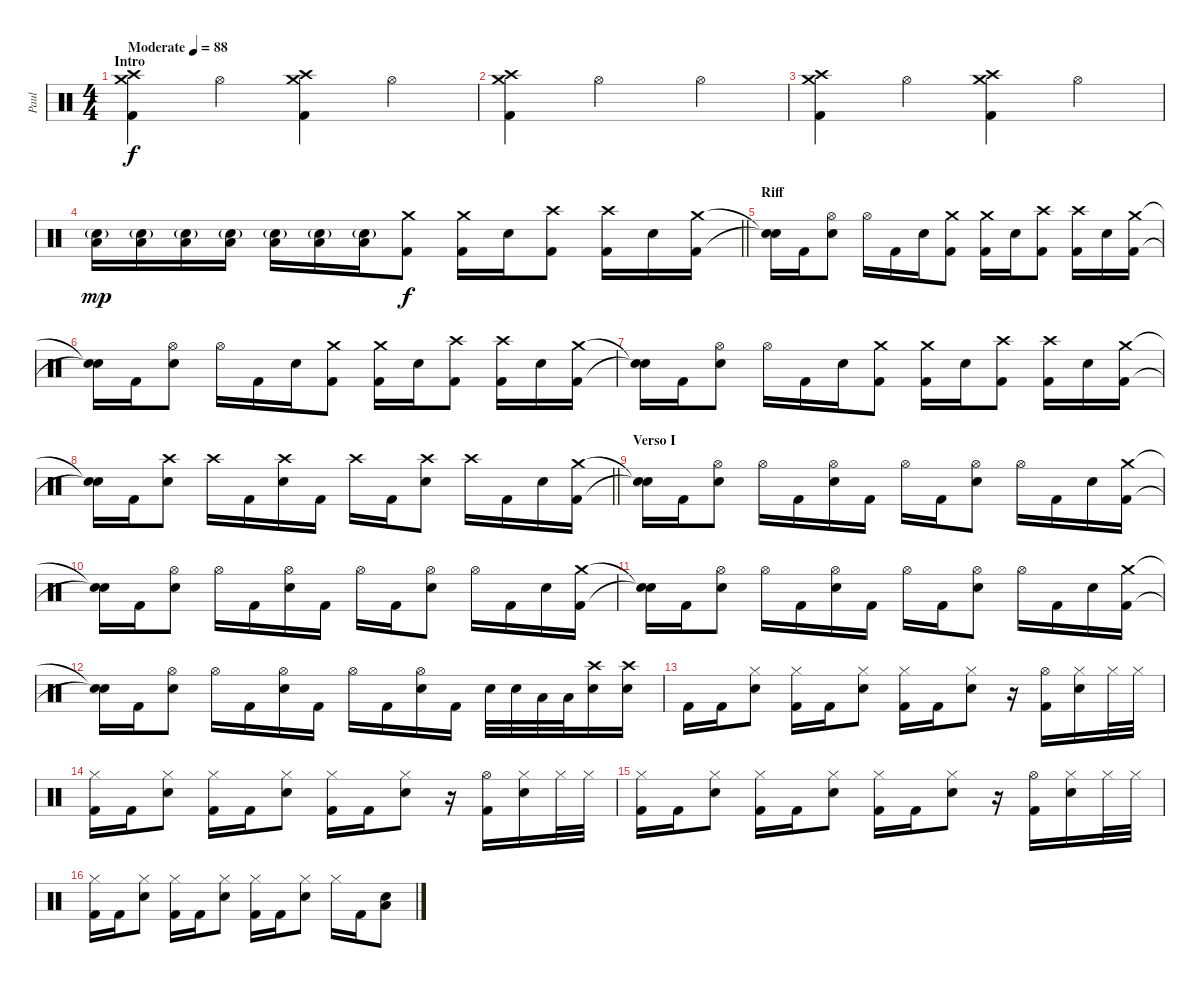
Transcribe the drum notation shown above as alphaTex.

\track ("Paul" "Paul") {instrument percussion}
\staff
\articulation defaults
\ts (4 4)
\section ("" "Intro")
\tempo (88 "Moderate")
\clef neutral
\ks c
("Crash medium (hit)" "Crash high (hit)" "Kick (hit) 2").4{dy f} "Hi-Hat (open)".4 ("Crash medium (hit)" "Crash high (hit)" "Kick (hit) 2").4 "Hi-Hat (open)".4 |
("Crash medium (hit)" "Crash high (hit)" "Kick (hit) 2").4 "Hi-Hat (open)".2 "Hi-Hat (open)".4 |
("Crash medium (hit)" "Crash high (hit)" "Kick (hit) 2").4 "Hi-Hat (open)".4 ("Crash medium (hit)" "Crash high (hit)" "Kick (hit) 2").4 "Hi-Hat (open)".4 |
\barLineRight lightlight
("Electric Snare (hit)"{g} "Low Floor Tom (hit)").16{dy mp} ("Electric Snare (hit)"{g} "Low Floor Tom (hit)").16 ("Electric Snare (hit)"{g} "Low Floor Tom (hit)").16 ("Electric Snare (hit)"{g} "Low Floor Tom (hit)").16 ("Electric Snare (hit)"{g} "Low Floor Tom (hit)").16 ("Electric Snare (hit)"{g} "Low Floor Tom (hit)").16 ("Electric Snare (hit)"{g} "Low Floor Tom (hit)").16 ("Crash medium (hit)" "Kick (hit) 2").8{dy f} ("Crash medium (hit)" "Kick (hit) 2").16 "Electric Snare (hit)".16 ("Crash high (hit)" "Kick (hit) 2").8 ("Crash high (hit)" "Kick (hit) 2").16 "Electric Snare (hit)".16 ("Crash medium (hit)" "Kick (hit) 2").16 |
\section ("" "Riff")
("Snare (hit)"{t} "Snare (hit)"{t}).16 "Kick (hit) 2".16 ("Hi-Hat (open)" "Electric Snare (hit)").8 "Hi-Hat (open)".16 "Kick (hit) 2".16 "Electric Snare (hit)".16 ("Crash medium (hit)" "Kick (hit) 2").8 ("Crash medium (hit)" "Kick (hit) 2").16 "Electric Snare (hit)".16 ("Crash high (hit)" "Kick (hit) 2").8 ("Crash high (hit)" "Kick (hit) 2").16 "Electric Snare (hit)".16 ("Crash medium (hit)" "Kick (hit) 2").16 |
("Snare (hit)"{t} "Snare (hit)"{t}).16 "Kick (hit) 2".16 ("Hi-Hat (open)" "Electric Snare (hit)").8 "Hi-Hat (open)".16 "Kick (hit) 2".16 "Electric Snare (hit)".16 ("Crash medium (hit)" "Kick (hit) 2").8 ("Crash medium (hit)" "Kick (hit) 2").16 "Electric Snare (hit)".16 ("Crash high (hit)" "Kick (hit) 2").8 ("Crash high (hit)" "Kick (hit) 2").16 "Electric Snare (hit)".16 ("Crash medium (hit)" "Kick (hit) 2").16 |
("Snare (hit)"{t} "Snare (hit)"{t}).16 "Kick (hit) 2".16 ("Hi-Hat (open)" "Electric Snare (hit)").8 "Hi-Hat (open)".16 "Kick (hit) 2".16 "Electric Snare (hit)".16 ("Crash medium (hit)" "Kick (hit) 2").8 ("Crash medium (hit)" "Kick (hit) 2").16 "Electric Snare (hit)".16 ("Crash high (hit)" "Kick (hit) 2").8 ("Crash high (hit)" "Kick (hit) 2").16 "Electric Snare (hit)".16 ("Crash medium (hit)" "Kick (hit) 2").16 |
\barLineRight lightlight
("Snare (hit)"{t} "Snare (hit)"{t}).16 "Kick (hit) 2".16 ("Crash high (hit)" "Electric Snare (hit)").8 "Crash high (hit)".16 "Kick (hit) 2".16 ("Crash high (hit)" "Electric Snare (hit)").16 "Kick (hit) 2".16 "Crash high (hit)".16 "Kick (hit) 2".16 ("Crash high (hit)" "Electric Snare (hit)").8 "Crash high (hit)".16 "Kick (hit) 2".16 "Electric Snare (hit)".16 ("Crash medium (hit)" "Kick (hit) 2").16 |
\section ("" "Verso I")
("Snare (hit)"{t} "Snare (hit)"{t}).16 "Kick (hit) 2".16 ("Hi-Hat (open)" "Electric Snare (hit)").8 "Hi-Hat (open)".16 "Kick (hit) 2".16 ("Hi-Hat (open)" "Electric Snare (hit)").16 "Kick (hit) 2".16 "Hi-Hat (open)".16 "Kick (hit) 2".16 ("Hi-Hat (open)" "Electric Snare (hit)").8 "Hi-Hat (open)".16 "Kick (hit) 2".16 "Electric Snare (hit)".16 ("Crash medium (hit)" "Kick (hit) 2").16 |
("Snare (hit)"{t} "Snare (hit)"{t}).16 "Kick (hit) 2".16 ("Hi-Hat (open)" "Electric Snare (hit)").8 "Hi-Hat (open)".16 "Kick (hit) 2".16 ("Hi-Hat (open)" "Electric Snare (hit)").16 "Kick (hit) 2".16 "Hi-Hat (open)".16 "Kick (hit) 2".16 ("Hi-Hat (open)" "Electric Snare (hit)").8 "Hi-Hat (open)".16 "Kick (hit) 2".16 "Electric Snare (hit)".16 ("Crash medium (hit)" "Kick (hit) 2").16 |
("Snare (hit)"{t} "Snare (hit)"{t}).16 "Kick (hit) 2".16 ("Hi-Hat (open)" "Electric Snare (hit)").8 "Hi-Hat (open)".16 "Kick (hit) 2".16 ("Hi-Hat (open)" "Electric Snare (hit)").16 "Kick (hit) 2".16 "Hi-Hat (open)".16 "Kick (hit) 2".16 ("Hi-Hat (open)" "Electric Snare (hit)").8 "Hi-Hat (open)".16 "Kick (hit) 2".16 "Electric Snare (hit)".16 ("Crash medium (hit)" "Kick (hit) 2").16 |
("Snare (hit)"{t} "Snare (hit)"{t}).16 "Kick (hit) 2".16 ("Hi-Hat (open)" "Electric Snare (hit)").8 "Hi-Hat (open)".16 "Kick (hit) 2".16 ("Hi-Hat (open)" "Electric Snare (hit)").16 "Kick (hit) 2".16 "Hi-Hat (open)".16 "Kick (hit) 2".16 ("Hi-Hat (open)" "Electric Snare (hit)").16 "Kick (hit) 2".16 "Electric Snare (hit)".32 "Electric Snare (hit)".32 "Low Tom (hit)".32 "Low Tom (hit)".32 ("Crash high (hit)" "Electric Snare (hit)").16 ("Crash high (hit)" "Electric Snare (hit)").16 |
"Kick (hit) 2".16 "Kick (hit) 2".16 ("Hi-Hat (closed)" "Electric Snare (hit)").8 ("Hi-Hat (closed)" "Kick (hit) 2").16 "Kick (hit) 2".16 ("Hi-Hat (closed)" "Electric Snare (hit)").8 ("Hi-Hat (closed)" "Kick (hit) 2").16 "Kick (hit) 2".16 ("Hi-Hat (closed)" "Electric Snare (hit)").8 r.16 ("Hi-Hat (open)" "Kick (hit) 2").16 ("Hi-Hat (closed)" "Electric Snare (hit)").16 "Hi-Hat (closed)".32 "Hi-Hat (closed)".32 |
("Hi-Hat (closed)" "Kick (hit) 2").16 "Kick (hit) 2".16 ("Hi-Hat (closed)" "Electric Snare (hit)").8 ("Hi-Hat (closed)" "Kick (hit) 2").16 "Kick (hit) 2".16 ("Hi-Hat (closed)" "Electric Snare (hit)").8 ("Hi-Hat (closed)" "Kick (hit) 2").16 "Kick (hit) 2".16 ("Hi-Hat (closed)" "Electric Snare (hit)").8 r.16 ("Hi-Hat (open)" "Kick (hit) 2").16 ("Hi-Hat (closed)" "Electric Snare (hit)").16 "Hi-Hat (closed)".32 "Hi-Hat (closed)".32 |
("Hi-Hat (closed)" "Kick (hit) 2").16 "Kick (hit) 2".16 ("Hi-Hat (closed)" "Electric Snare (hit)").8 ("Hi-Hat (closed)" "Kick (hit) 2").16 "Kick (hit) 2".16 ("Hi-Hat (closed)" "Electric Snare (hit)").8 ("Hi-Hat (closed)" "Kick (hit) 2").16 "Kick (hit) 2".16 ("Hi-Hat (closed)" "Electric Snare (hit)").8 r.16 ("Hi-Hat (open)" "Kick (hit) 2").16 ("Hi-Hat (closed)" "Electric Snare (hit)").16 "Hi-Hat (closed)".32 "Hi-Hat (closed)".32 |
("Hi-Hat (closed)" "Kick (hit) 2").16 "Kick (hit) 2".16 ("Hi-Hat (closed)" "Electric Snare (hit)").8 ("Hi-Hat (closed)" "Kick (hit) 2").16 "Kick (hit) 2".16 ("Hi-Hat (closed)" "Electric Snare (hit)").8 ("Hi-Hat (closed)" "Kick (hit) 2").16 "Kick (hit) 2".16 ("Hi-Hat (closed)" "Electric Snare (hit)").8 "Hi-Hat (closed)".16 "Kick (hit) 2".16 ("Electric Snare (hit)" "Low Floor Tom (hit)").8
